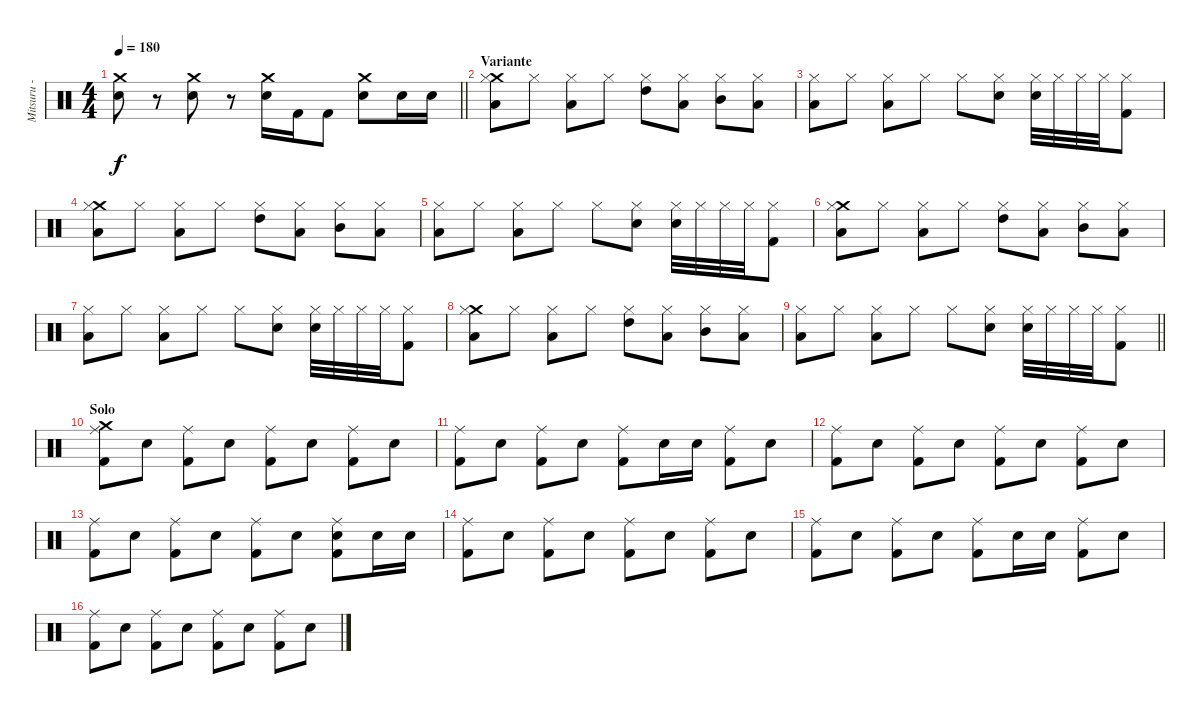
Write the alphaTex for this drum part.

\track ("Mitsuru - Batterie" "Mitsuru - ") {instrument percussion}
\staff {score}
\articulation defaults
\ts (4 4)
\tempo 180
\clef neutral
\barLineRight lightlight
\ks c
("Crash medium (hit)" "Electric Snare (hit)").8{dy f} r.8 ("Crash medium (hit)" "Electric Snare (hit)").8 r.8 ("Crash medium (hit)" "Electric Snare (hit)").16 "Kick (hit) 2".16 "Kick (hit) 2".8 ("Crash medium (hit)" "Electric Snare (hit)").8 "Electric Snare (hit)".16 "Electric Snare (hit)".16 |
\section ("" "Variante")
("Crash medium (hit)" "Hi-Hat (closed)" "Low Tom (hit)").8 "Hi-Hat (closed)".8 ("Hi-Hat (closed)" "Low Tom (hit)").8 "Hi-Hat (closed)".8 ("Hi-Hat (closed)" "High Tom (hit)").8 ("Hi-Hat (closed)" "Low Tom (hit)").8 ("Hi-Hat (closed)" "Mid Tom (hit)").8 ("Hi-Hat (closed)" "Low Tom (hit)").8 |
("Hi-Hat (closed)" "Low Tom (hit)").8 "Hi-Hat (closed)".8 ("Hi-Hat (closed)" "Low Tom (hit)").8 "Hi-Hat (closed)".8 "Hi-Hat (closed)".8 ("Hi-Hat (closed)" "Electric Snare (hit)").8 ("Hi-Hat (closed)" "Electric Snare (hit)").32 "Hi-Hat (closed)".32 "Hi-Hat (closed)".32 "Hi-Hat (closed)".32 ("Hi-Hat (closed)" "Kick (hit) 2").8 |
("Crash medium (hit)" "Hi-Hat (closed)" "Low Tom (hit)").8 "Hi-Hat (closed)".8 ("Hi-Hat (closed)" "Low Tom (hit)").8 "Hi-Hat (closed)".8 ("Hi-Hat (closed)" "High Tom (hit)").8 ("Hi-Hat (closed)" "Low Tom (hit)").8 ("Hi-Hat (closed)" "Mid Tom (hit)").8 ("Hi-Hat (closed)" "Low Tom (hit)").8 |
("Hi-Hat (closed)" "Low Tom (hit)").8 "Hi-Hat (closed)".8 ("Hi-Hat (closed)" "Low Tom (hit)").8 "Hi-Hat (closed)".8 "Hi-Hat (closed)".8 ("Hi-Hat (closed)" "Electric Snare (hit)").8 ("Hi-Hat (closed)" "Electric Snare (hit)").32 "Hi-Hat (closed)".32 "Hi-Hat (closed)".32 "Hi-Hat (closed)".32 ("Hi-Hat (closed)" "Kick (hit) 2").8 |
("Crash medium (hit)" "Hi-Hat (closed)" "Low Tom (hit)").8 "Hi-Hat (closed)".8 ("Hi-Hat (closed)" "Low Tom (hit)").8 "Hi-Hat (closed)".8 ("Hi-Hat (closed)" "High Tom (hit)").8 ("Hi-Hat (closed)" "Low Tom (hit)").8 ("Hi-Hat (closed)" "Mid Tom (hit)").8 ("Hi-Hat (closed)" "Low Tom (hit)").8 |
("Hi-Hat (closed)" "Low Tom (hit)").8 "Hi-Hat (closed)".8 ("Hi-Hat (closed)" "Low Tom (hit)").8 "Hi-Hat (closed)".8 "Hi-Hat (closed)".8 ("Hi-Hat (closed)" "Electric Snare (hit)").8 ("Hi-Hat (closed)" "Electric Snare (hit)").32 "Hi-Hat (closed)".32 "Hi-Hat (closed)".32 "Hi-Hat (closed)".32 ("Hi-Hat (closed)" "Kick (hit) 2").8 |
("Crash medium (hit)" "Hi-Hat (closed)" "Low Tom (hit)").8 "Hi-Hat (closed)".8 ("Hi-Hat (closed)" "Low Tom (hit)").8 "Hi-Hat (closed)".8 ("Hi-Hat (closed)" "High Tom (hit)").8 ("Hi-Hat (closed)" "Low Tom (hit)").8 ("Hi-Hat (closed)" "Mid Tom (hit)").8 ("Hi-Hat (closed)" "Low Tom (hit)").8 |
\barLineRight lightlight
("Hi-Hat (closed)" "Low Tom (hit)").8 "Hi-Hat (closed)".8 ("Hi-Hat (closed)" "Low Tom (hit)").8 "Hi-Hat (closed)".8 "Hi-Hat (closed)".8 ("Hi-Hat (closed)" "Electric Snare (hit)").8 ("Hi-Hat (closed)" "Electric Snare (hit)").32 "Hi-Hat (closed)".32 "Hi-Hat (closed)".32 "Hi-Hat (closed)".32 ("Hi-Hat (closed)" "Kick (hit) 2").8 |
\section ("" "Solo")
("Crash medium (hit)" "Ride (middle)" "Kick (hit) 2").8 "Electric Snare (hit)".8 ("Ride (middle)" "Kick (hit) 2").8 "Electric Snare (hit)".8 ("Ride (middle)" "Kick (hit) 2").8 "Electric Snare (hit)".8 ("Ride (middle)" "Kick (hit) 2").8 "Electric Snare (hit)".8 |
("Ride (middle)" "Kick (hit) 2").8 "Electric Snare (hit)".8 ("Ride (middle)" "Kick (hit) 2").8 "Electric Snare (hit)".8 ("Ride (middle)" "Kick (hit) 2").8 "Electric Snare (hit)".16 "Electric Snare (hit)".16 ("Ride (middle)" "Kick (hit) 2").8 "Electric Snare (hit)".8 |
("Ride (middle)" "Kick (hit) 2").8 "Electric Snare (hit)".8 ("Ride (middle)" "Kick (hit) 2").8 "Electric Snare (hit)".8 ("Ride (middle)" "Kick (hit) 2").8 "Electric Snare (hit)".8 ("Ride (middle)" "Kick (hit) 2").8 "Electric Snare (hit)".8 |
("Ride (middle)" "Kick (hit) 2").8 "Electric Snare (hit)".8 ("Ride (middle)" "Kick (hit) 2").8 "Electric Snare (hit)".8 ("Ride (middle)" "Kick (hit) 2").8 "Electric Snare (hit)".8 ("Ride (middle)" "Electric Snare (hit)" "Kick (hit) 2").8 "Electric Snare (hit)".16 "Electric Snare (hit)".16 |
("Ride (middle)" "Kick (hit) 2").8 "Electric Snare (hit)".8 ("Ride (middle)" "Kick (hit) 2").8 "Electric Snare (hit)".8 ("Ride (middle)" "Kick (hit) 2").8 "Electric Snare (hit)".8 ("Ride (middle)" "Kick (hit) 2").8 "Electric Snare (hit)".8 |
("Ride (middle)" "Kick (hit) 2").8 "Electric Snare (hit)".8 ("Ride (middle)" "Kick (hit) 2").8 "Electric Snare (hit)".8 ("Ride (middle)" "Kick (hit) 2").8 "Electric Snare (hit)".16 "Electric Snare (hit)".16 ("Ride (middle)" "Kick (hit) 2").8 "Electric Snare (hit)".8 |
("Ride (middle)" "Kick (hit) 2").8 "Electric Snare (hit)".8 ("Ride (middle)" "Kick (hit) 2").8 "Electric Snare (hit)".8 ("Ride (middle)" "Kick (hit) 2").8 "Electric Snare (hit)".8 ("Ride (middle)" "Kick (hit) 2").8 "Electric Snare (hit)".8
